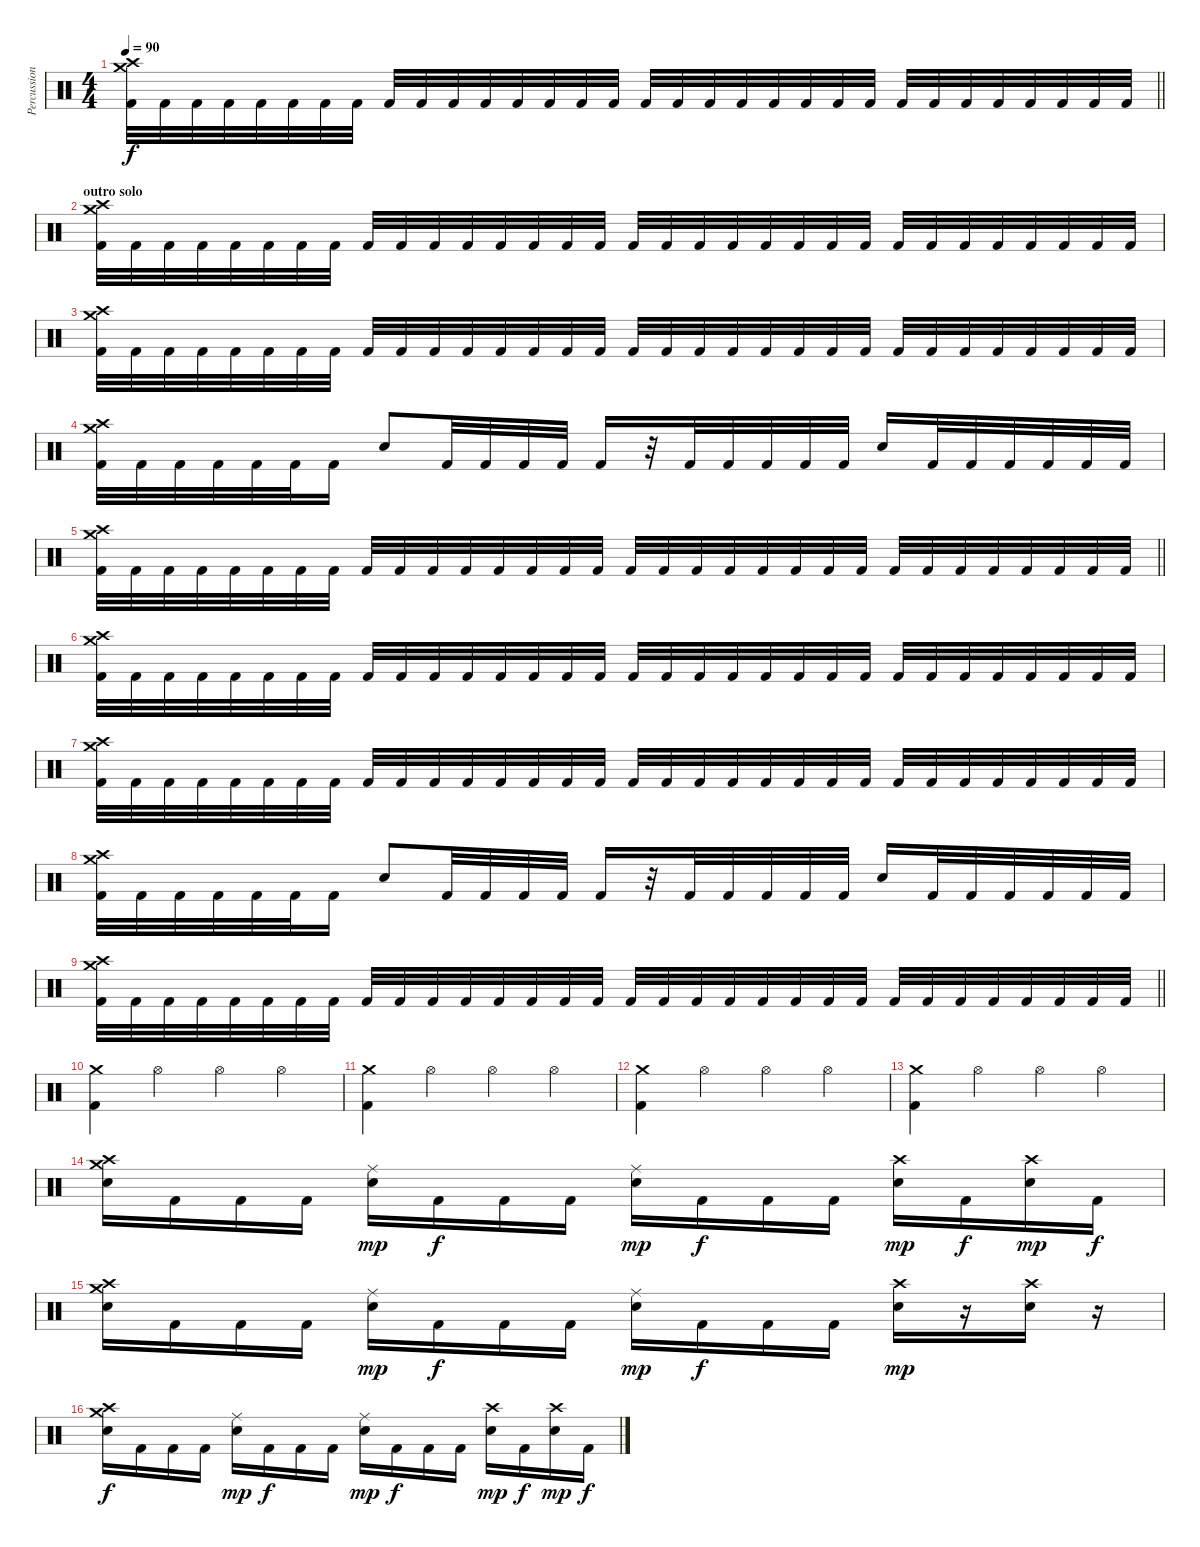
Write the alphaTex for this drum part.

\track ("Percussion" "Percussion") {instrument percussion}
\staff {score}
\articulation defaults
\ts (4 4)
\tempo 90
\clef neutral
\barLineRight lightlight
\ks c
("Crash high (hit)" "Crash medium (hit)" "Kick (hit) 2").32{dy f} "Kick (hit) 2".32 "Kick (hit) 2".32 "Kick (hit) 2".32 "Kick (hit) 2".32 "Kick (hit) 2".32 "Kick (hit) 2".32 "Kick (hit) 2".32 "Kick (hit) 2".32 "Kick (hit) 2".32 "Kick (hit) 2".32 "Kick (hit) 2".32 "Kick (hit) 2".32 "Kick (hit) 2".32 "Kick (hit) 2".32 "Kick (hit) 2".32 "Kick (hit) 2".32 "Kick (hit) 2".32 "Kick (hit) 2".32 "Kick (hit) 2".32 "Kick (hit) 2".32 "Kick (hit) 2".32 "Kick (hit) 2".32 "Kick (hit) 2".32 "Kick (hit) 2".32 "Kick (hit) 2".32 "Kick (hit) 2".32 "Kick (hit) 2".32 "Kick (hit) 2".32 "Kick (hit) 2".32 "Kick (hit) 2".32 "Kick (hit) 2".32 |
\section ("" "outro solo")
("Crash high (hit)" "Crash medium (hit)" "Kick (hit) 2").32 "Kick (hit) 2".32 "Kick (hit) 2".32 "Kick (hit) 2".32 "Kick (hit) 2".32 "Kick (hit) 2".32 "Kick (hit) 2".32 "Kick (hit) 2".32 "Kick (hit) 2".32 "Kick (hit) 2".32 "Kick (hit) 2".32 "Kick (hit) 2".32 "Kick (hit) 2".32 "Kick (hit) 2".32 "Kick (hit) 2".32 "Kick (hit) 2".32 "Kick (hit) 2".32 "Kick (hit) 2".32 "Kick (hit) 2".32 "Kick (hit) 2".32 "Kick (hit) 2".32 "Kick (hit) 2".32 "Kick (hit) 2".32 "Kick (hit) 2".32 "Kick (hit) 2".32 "Kick (hit) 2".32 "Kick (hit) 2".32 "Kick (hit) 2".32 "Kick (hit) 2".32 "Kick (hit) 2".32 "Kick (hit) 2".32 "Kick (hit) 2".32 |
("Crash high (hit)" "Crash medium (hit)" "Kick (hit) 2").32 "Kick (hit) 2".32 "Kick (hit) 2".32 "Kick (hit) 2".32 "Kick (hit) 2".32 "Kick (hit) 2".32 "Kick (hit) 2".32 "Kick (hit) 2".32 "Kick (hit) 2".32 "Kick (hit) 2".32 "Kick (hit) 2".32 "Kick (hit) 2".32 "Kick (hit) 2".32 "Kick (hit) 2".32 "Kick (hit) 2".32 "Kick (hit) 2".32 "Kick (hit) 2".32 "Kick (hit) 2".32 "Kick (hit) 2".32 "Kick (hit) 2".32 "Kick (hit) 2".32 "Kick (hit) 2".32 "Kick (hit) 2".32 "Kick (hit) 2".32 "Kick (hit) 2".32 "Kick (hit) 2".32 "Kick (hit) 2".32 "Kick (hit) 2".32 "Kick (hit) 2".32 "Kick (hit) 2".32 "Kick (hit) 2".32 "Kick (hit) 2".32 |
("Crash high (hit)" "Crash medium (hit)" "Kick (hit) 2").32 "Kick (hit) 2".32 "Kick (hit) 2".32 "Kick (hit) 2".32 "Kick (hit) 2".32 "Kick (hit) 2".32 "Kick (hit) 2".16 "Electric Snare (hit)".8 "Kick (hit) 2".32 "Kick (hit) 2".32 "Kick (hit) 2".32 "Kick (hit) 2".32 "Kick (hit) 2".16 r.32 "Kick (hit) 2".32 "Kick (hit) 2".32 "Kick (hit) 2".32 "Kick (hit) 2".32 "Kick (hit) 2".32 "Electric Snare (hit)".16 "Kick (hit) 2".32 "Kick (hit) 2".32 "Kick (hit) 2".32 "Kick (hit) 2".32 "Kick (hit) 2".32 "Kick (hit) 2".32 |
\barLineRight lightlight
("Crash high (hit)" "Crash medium (hit)" "Kick (hit) 2").32 "Kick (hit) 2".32 "Kick (hit) 2".32 "Kick (hit) 2".32 "Kick (hit) 2".32 "Kick (hit) 2".32 "Kick (hit) 2".32 "Kick (hit) 2".32 "Kick (hit) 2".32 "Kick (hit) 2".32 "Kick (hit) 2".32 "Kick (hit) 2".32 "Kick (hit) 2".32 "Kick (hit) 2".32 "Kick (hit) 2".32 "Kick (hit) 2".32 "Kick (hit) 2".32 "Kick (hit) 2".32 "Kick (hit) 2".32 "Kick (hit) 2".32 "Kick (hit) 2".32 "Kick (hit) 2".32 "Kick (hit) 2".32 "Kick (hit) 2".32 "Kick (hit) 2".32 "Kick (hit) 2".32 "Kick (hit) 2".32 "Kick (hit) 2".32 "Kick (hit) 2".32 "Kick (hit) 2".32 "Kick (hit) 2".32 "Kick (hit) 2".32 |
("Crash high (hit)" "Crash medium (hit)" "Kick (hit) 2").32 "Kick (hit) 2".32 "Kick (hit) 2".32 "Kick (hit) 2".32 "Kick (hit) 2".32 "Kick (hit) 2".32 "Kick (hit) 2".32 "Kick (hit) 2".32 "Kick (hit) 2".32 "Kick (hit) 2".32 "Kick (hit) 2".32 "Kick (hit) 2".32 "Kick (hit) 2".32 "Kick (hit) 2".32 "Kick (hit) 2".32 "Kick (hit) 2".32 "Kick (hit) 2".32 "Kick (hit) 2".32 "Kick (hit) 2".32 "Kick (hit) 2".32 "Kick (hit) 2".32 "Kick (hit) 2".32 "Kick (hit) 2".32 "Kick (hit) 2".32 "Kick (hit) 2".32 "Kick (hit) 2".32 "Kick (hit) 2".32 "Kick (hit) 2".32 "Kick (hit) 2".32 "Kick (hit) 2".32 "Kick (hit) 2".32 "Kick (hit) 2".32 |
("Crash high (hit)" "Crash medium (hit)" "Kick (hit) 2").32 "Kick (hit) 2".32 "Kick (hit) 2".32 "Kick (hit) 2".32 "Kick (hit) 2".32 "Kick (hit) 2".32 "Kick (hit) 2".32 "Kick (hit) 2".32 "Kick (hit) 2".32 "Kick (hit) 2".32 "Kick (hit) 2".32 "Kick (hit) 2".32 "Kick (hit) 2".32 "Kick (hit) 2".32 "Kick (hit) 2".32 "Kick (hit) 2".32 "Kick (hit) 2".32 "Kick (hit) 2".32 "Kick (hit) 2".32 "Kick (hit) 2".32 "Kick (hit) 2".32 "Kick (hit) 2".32 "Kick (hit) 2".32 "Kick (hit) 2".32 "Kick (hit) 2".32 "Kick (hit) 2".32 "Kick (hit) 2".32 "Kick (hit) 2".32 "Kick (hit) 2".32 "Kick (hit) 2".32 "Kick (hit) 2".32 "Kick (hit) 2".32 |
("Crash high (hit)" "Crash medium (hit)" "Kick (hit) 2").32 "Kick (hit) 2".32 "Kick (hit) 2".32 "Kick (hit) 2".32 "Kick (hit) 2".32 "Kick (hit) 2".32 "Kick (hit) 2".16 "Electric Snare (hit)".8 "Kick (hit) 2".32 "Kick (hit) 2".32 "Kick (hit) 2".32 "Kick (hit) 2".32 "Kick (hit) 2".16 r.32 "Kick (hit) 2".32 "Kick (hit) 2".32 "Kick (hit) 2".32 "Kick (hit) 2".32 "Kick (hit) 2".32 "Electric Snare (hit)".16 "Kick (hit) 2".32 "Kick (hit) 2".32 "Kick (hit) 2".32 "Kick (hit) 2".32 "Kick (hit) 2".32 "Kick (hit) 2".32 |
\barLineRight lightlight
("Crash high (hit)" "Crash medium (hit)" "Kick (hit) 2").32 "Kick (hit) 2".32 "Kick (hit) 2".32 "Kick (hit) 2".32 "Kick (hit) 2".32 "Kick (hit) 2".32 "Kick (hit) 2".32 "Kick (hit) 2".32 "Kick (hit) 2".32 "Kick (hit) 2".32 "Kick (hit) 2".32 "Kick (hit) 2".32 "Kick (hit) 2".32 "Kick (hit) 2".32 "Kick (hit) 2".32 "Kick (hit) 2".32 "Kick (hit) 2".32 "Kick (hit) 2".32 "Kick (hit) 2".32 "Kick (hit) 2".32 "Kick (hit) 2".32 "Kick (hit) 2".32 "Kick (hit) 2".32 "Kick (hit) 2".32 "Kick (hit) 2".32 "Kick (hit) 2".32 "Kick (hit) 2".32 "Kick (hit) 2".32 "Kick (hit) 2".32 "Kick (hit) 2".32 "Kick (hit) 2".32 "Kick (hit) 2".32 |
("Crash medium (hit)" "Kick (hit) 2").4 "Hi-Hat (open)".4 "Hi-Hat (open)".4 "Hi-Hat (open)".4 |
("Crash medium (hit)" "Kick (hit) 2").4 "Hi-Hat (open)".4 "Hi-Hat (open)".4 "Hi-Hat (open)".4 |
("Crash medium (hit)" "Kick (hit) 2").4 "Hi-Hat (open)".4 "Hi-Hat (open)".4 "Hi-Hat (open)".4 |
("Crash medium (hit)" "Kick (hit) 2").4 "Hi-Hat (open)".4 "Hi-Hat (open)".4 "Hi-Hat (open)".4 |
("Crash high (hit)" "Crash medium (hit)" "Snare (hit) 2").16 "Kick (hit) 2".16 "Kick (hit) 2".16 "Kick (hit) 2".16 ("Ride (middle)" "Snare (hit) 2").16{dy mp} "Kick (hit) 2".16{dy f} "Kick (hit) 2".16 "Kick (hit) 2".16 ("Ride (middle)" "Snare (hit) 2").16{dy mp} "Kick (hit) 2".16{dy f} "Kick (hit) 2".16 "Kick (hit) 2".16 ("Crash high (hit)" "Snare (hit) 2").16{dy mp} "Kick (hit) 2".16{dy f} ("Crash high (hit)" "Snare (hit) 2").16{dy mp} "Kick (hit) 2".16{dy f} |
("Crash high (hit)" "Crash medium (hit)" "Snare (hit) 2").16 "Kick (hit) 2".16 "Kick (hit) 2".16 "Kick (hit) 2".16 ("Ride (middle)" "Snare (hit) 2").16{dy mp} "Kick (hit) 2".16{dy f} "Kick (hit) 2".16 "Kick (hit) 2".16 ("Ride (middle)" "Snare (hit) 2").16{dy mp} "Kick (hit) 2".16{dy f} "Kick (hit) 2".16 "Kick (hit) 2".16 ("Crash high (hit)" "Snare (hit) 2").16{dy mp} r.16 ("Crash high (hit)" "Snare (hit) 2").16 r.16 |
("Crash high (hit)" "Crash medium (hit)" "Snare (hit) 2").16{dy f} "Kick (hit) 2".16 "Kick (hit) 2".16 "Kick (hit) 2".16 ("Ride (middle)" "Snare (hit) 2").16{dy mp} "Kick (hit) 2".16{dy f} "Kick (hit) 2".16 "Kick (hit) 2".16 ("Ride (middle)" "Snare (hit) 2").16{dy mp} "Kick (hit) 2".16{dy f} "Kick (hit) 2".16 "Kick (hit) 2".16 ("Crash high (hit)" "Snare (hit) 2").16{dy mp} "Kick (hit) 2".16{dy f} ("Crash high (hit)" "Snare (hit) 2").16{dy mp} "Kick (hit) 2".16{dy f}
